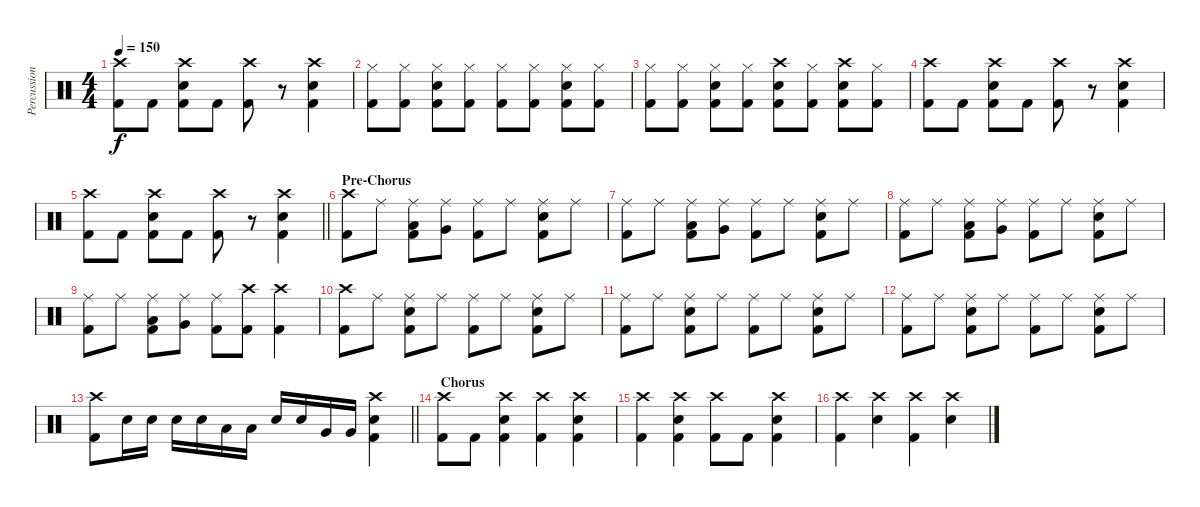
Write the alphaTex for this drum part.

\track ("Percussion" "Percussion") {instrument percussion}
\staff {score}
\articulation defaults
\ts (4 4)
\tempo 150
\clef neutral
\ks c
("Crash high (hit)" "Kick (hit) 2").8{dy f} "Kick (hit) 2".8 ("Crash high (hit)" "Electric Snare (hit)" "Kick (hit) 2").8 "Kick (hit) 2".8 ("Crash high (hit)" "Kick (hit) 2").8 r.8 ("Crash high (hit)" "Electric Snare (hit)" "Kick (hit) 2").4 |
("Hi-Hat (closed)" "Kick (hit) 2").8 ("Hi-Hat (closed)" "Kick (hit) 2").8 ("Hi-Hat (closed)" "Electric Snare (hit)" "Kick (hit) 2").8 ("Hi-Hat (closed)" "Kick (hit) 2").8 ("Hi-Hat (closed)" "Kick (hit) 2").8 ("Hi-Hat (closed)" "Kick (hit) 2").8 ("Hi-Hat (closed)" "Electric Snare (hit)" "Kick (hit) 2").8 ("Hi-Hat (closed)" "Kick (hit) 2").8 |
("Hi-Hat (closed)" "Kick (hit) 2").8 ("Hi-Hat (closed)" "Kick (hit) 2").8 ("Hi-Hat (closed)" "Electric Snare (hit)" "Kick (hit) 2").8 ("Hi-Hat (closed)" "Kick (hit) 2").8 ("Crash high (hit)" "Electric Snare (hit)" "Kick (hit) 2").8 ("Hi-Hat (closed)" "Kick (hit) 2").8 ("Crash high (hit)" "Electric Snare (hit)" "Kick (hit) 2").8 ("Hi-Hat (closed)" "Kick (hit) 2").8 |
("Crash high (hit)" "Kick (hit) 2").8 "Kick (hit) 2".8 ("Crash high (hit)" "Electric Snare (hit)" "Kick (hit) 2").8 "Kick (hit) 2".8 ("Crash high (hit)" "Kick (hit) 2").8 r.8 ("Crash high (hit)" "Electric Snare (hit)" "Kick (hit) 2").4 |
\barLineRight lightlight
("Crash high (hit)" "Kick (hit) 2").8 "Kick (hit) 2".8 ("Crash high (hit)" "Electric Snare (hit)" "Kick (hit) 2").8 "Kick (hit) 2".8 ("Crash high (hit)" "Kick (hit) 2").8 r.8 ("Crash high (hit)" "Electric Snare (hit)" "Kick (hit) 2").4 |
\section ("" "Pre-Chorus")
("Crash high (hit)" "Kick (hit) 2").8 "Ride (middle)".8 ("Ride (middle)" "Low Tom (hit)" "Kick (hit) 2").8 ("Ride (middle)" "Very Low Tom (hit)").8 ("Ride (middle)" "Kick (hit) 2").8 "Ride (middle)".8 ("Ride (middle)" "Electric Snare (hit)" "Kick (hit) 2").8 "Ride (middle)".8 |
("Ride (middle)" "Kick (hit) 2").8 "Ride (middle)".8 ("Ride (middle)" "Low Tom (hit)" "Kick (hit) 2").8 ("Ride (middle)" "Very Low Tom (hit)").8 ("Ride (middle)" "Kick (hit) 2").8 "Ride (middle)".8 ("Ride (middle)" "Electric Snare (hit)" "Kick (hit) 2").8 "Ride (middle)".8 |
("Ride (middle)" "Kick (hit) 2").8 "Ride (middle)".8 ("Ride (middle)" "Low Tom (hit)" "Kick (hit) 2").8 ("Ride (middle)" "Very Low Tom (hit)").8 ("Ride (middle)" "Kick (hit) 2").8 "Ride (middle)".8 ("Ride (middle)" "Electric Snare (hit)" "Kick (hit) 2").8 "Ride (middle)".8 |
("Ride (middle)" "Kick (hit) 2").8 "Ride (middle)".8 ("Ride (middle)" "Low Tom (hit)" "Kick (hit) 2").8 ("Ride (middle)" "Very Low Tom (hit)").8 ("Ride (middle)" "Kick (hit) 2").8 ("Crash high (hit)" "Kick (hit) 2").8 ("Crash high (hit)" "Kick (hit) 2").4 |
("Crash high (hit)" "Kick (hit) 2").8 "Ride (middle)".8 ("Ride (middle)" "Electric Snare (hit)" "Kick (hit) 2").8 "Ride (middle)".8 ("Ride (middle)" "Kick (hit) 2").8 "Ride (middle)".8 ("Ride (middle)" "Electric Snare (hit)" "Kick (hit) 2").8 "Ride (middle)".8 |
("Ride (middle)" "Kick (hit) 2").8 "Ride (middle)".8 ("Ride (middle)" "Electric Snare (hit)" "Kick (hit) 2").8 "Ride (middle)".8 ("Ride (middle)" "Kick (hit) 2").8 "Ride (middle)".8 ("Ride (middle)" "Electric Snare (hit)" "Kick (hit) 2").8 "Ride (middle)".8 |
("Ride (middle)" "Kick (hit) 2").8 "Ride (middle)".8 ("Ride (middle)" "Electric Snare (hit)" "Kick (hit) 2").8 "Ride (middle)".8 ("Ride (middle)" "Kick (hit) 2").8 "Ride (middle)".8 ("Ride (middle)" "Electric Snare (hit)" "Kick (hit) 2").8 "Ride (middle)".8 |
\barLineRight lightlight
("Crash high (hit)" "Kick (hit) 2").8 "Electric Snare (hit)".16 "Electric Snare (hit)".16 "Electric Snare (hit)".16 "Electric Snare (hit)".16 "Low Tom (hit)".16 "Low Tom (hit)".16 "Electric Snare (hit)".16 "Electric Snare (hit)".16 "Very Low Tom (hit)".16 "Very Low Tom (hit)".16 ("Crash high (hit)" "Electric Snare (hit)" "Kick (hit) 2").4 |
\section ("" " Chorus")
("Crash high (hit)" "Kick (hit) 2").8 "Kick (hit) 2".8 ("Crash high (hit)" "Electric Snare (hit)" "Kick (hit) 2").4 ("Crash high (hit)" "Kick (hit) 2").4 ("Crash high (hit)" "Electric Snare (hit)" "Kick (hit) 2").4 |
("Crash high (hit)" "Kick (hit) 2").4 ("Crash high (hit)" "Electric Snare (hit)" "Kick (hit) 2").4 ("Crash high (hit)" "Kick (hit) 2").8 "Kick (hit) 2".8 ("Crash high (hit)" "Electric Snare (hit)" "Kick (hit) 2").4 |
("Crash high (hit)" "Kick (hit) 2").4 ("Crash high (hit)" "Electric Snare (hit)").4 ("Crash high (hit)" "Kick (hit) 2").4 ("Crash high (hit)" "Electric Snare (hit)").4
